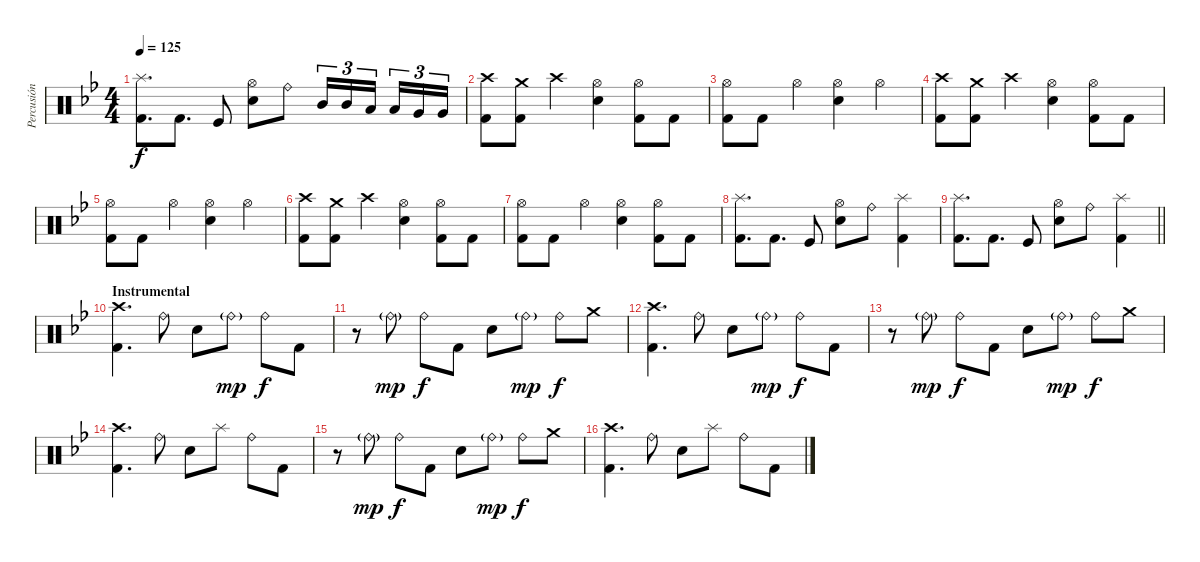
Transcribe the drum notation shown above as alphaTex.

\track ("Percusión" "Percusión") {instrument percussion}
\staff {score}
\articulation defaults
\ts (4 4)
\tempo 125
\clef neutral
\ks gminor
("Splash (hit)" "Kick (hit) 2").8{d dy f} "Kick (hit) 2".8{d} "Kick (hit)".8 ("Hi-Hat (open)" "Snare (hit) 2").8 "Ride (bell)".8 "Mid Tom (hit)".16{tu (3 2)} "Mid Tom (hit)".16{tu (3 2)} "Low Tom (hit)".16{tu (3 2) beam splitsecondary} "Low Tom (hit)".16{tu (3 2)} "Very Low Tom (hit)".16{tu (3 2)} "Very Low Tom (hit)".16{tu (3 2)} |
("Crash high (hit)" "Kick (hit) 2").8 ("Crash medium (hit)" "Kick (hit) 2").8 "Crash high (hit)".4 ("Hi-Hat (open)" "Snare (hit) 2").4 ("Hi-Hat (open)" "Kick (hit) 2").8 "Kick (hit) 2".8 |
("Hi-Hat (open)" "Kick (hit) 2").8 "Kick (hit) 2".8 "Hi-Hat (open)".4 ("Hi-Hat (open)" "Snare (hit) 2").4 "Hi-Hat (open)".4 |
("Crash high (hit)" "Kick (hit) 2").8 ("Crash medium (hit)" "Kick (hit) 2").8 "Crash high (hit)".4 ("Hi-Hat (open)" "Snare (hit) 2").4 ("Hi-Hat (open)" "Kick (hit) 2").8 "Kick (hit) 2".8 |
("Hi-Hat (open)" "Kick (hit) 2").8 "Kick (hit) 2".8 "Hi-Hat (open)".4 ("Hi-Hat (open)" "Snare (hit) 2").4 "Hi-Hat (open)".4 |
("Crash high (hit)" "Kick (hit) 2").8 ("Crash medium (hit)" "Kick (hit) 2").8 "Crash high (hit)".4 ("Hi-Hat (open)" "Snare (hit) 2").4 ("Hi-Hat (open)" "Kick (hit) 2").8 "Kick (hit) 2".8 |
("Hi-Hat (open)" "Kick (hit) 2").8 "Kick (hit) 2".8 "Hi-Hat (open)".4 ("Hi-Hat (open)" "Snare (hit) 2").4 ("Hi-Hat (open)" "Kick (hit) 2").8 "Kick (hit) 2".8 |
("Splash (hit)" "Kick (hit) 2").8{d} "Kick (hit) 2".8{d} "Kick (hit)".8 ("Hi-Hat (open)" "Snare (hit) 2").8 "Ride (bell)".8 ("Splash (hit)" "Kick (hit) 2").4 |
\barLineRight lightlight
("Splash (hit)" "Kick (hit) 2").8{d} "Kick (hit) 2".8{d} "Kick (hit)".8 ("Hi-Hat (open)" "Snare (hit) 2").8 "Ride (bell)".8 ("Splash (hit)" "Kick (hit) 2").4 |
\section ("" "Instrumental")
("Crash high (hit)" "Kick (hit) 2").4{d} "Ride (bell)".8 "Snare (hit) 2".8 "Ride (bell)"{g}.8{dy mp} "Ride (bell)".8{dy f} "Kick (hit) 2".8 |
r.8 "Ride (bell)"{g}.8{dy mp} "Ride (bell)".8{dy f} "Kick (hit) 2".8 "Snare (hit) 2".8 "Ride (bell)"{g}.8{dy mp} "Ride (bell)".8{dy f} "Crash medium (hit)".8 |
("Crash high (hit)" "Kick (hit) 2").4{d} "Ride (bell)".8 "Snare (hit) 2".8 "Ride (bell)"{g}.8{dy mp} "Ride (bell)".8{dy f} "Kick (hit) 2".8 |
r.8 "Ride (bell)"{g}.8{dy mp} "Ride (bell)".8{dy f} "Kick (hit) 2".8 "Snare (hit) 2".8 "Ride (bell)"{g}.8{dy mp} "Ride (bell)".8{dy f} "Crash medium (hit)".8 |
("Crash high (hit)" "Kick (hit) 2").4{d} "Ride (bell)".8 "Snare (hit) 2".8 "Splash (hit)".8 "Ride (bell)".8 "Kick (hit) 2".8 |
r.8 "Ride (bell)"{g}.8{dy mp} "Ride (bell)".8{dy f} "Kick (hit) 2".8 "Snare (hit) 2".8 "Ride (bell)"{g}.8{dy mp} "Ride (bell)".8{dy f} "Crash medium (hit)".8 |
("Crash high (hit)" "Kick (hit) 2").4{d} "Ride (bell)".8 "Snare (hit) 2".8 "Splash (hit)".8 "Ride (bell)".8 "Kick (hit) 2".8
